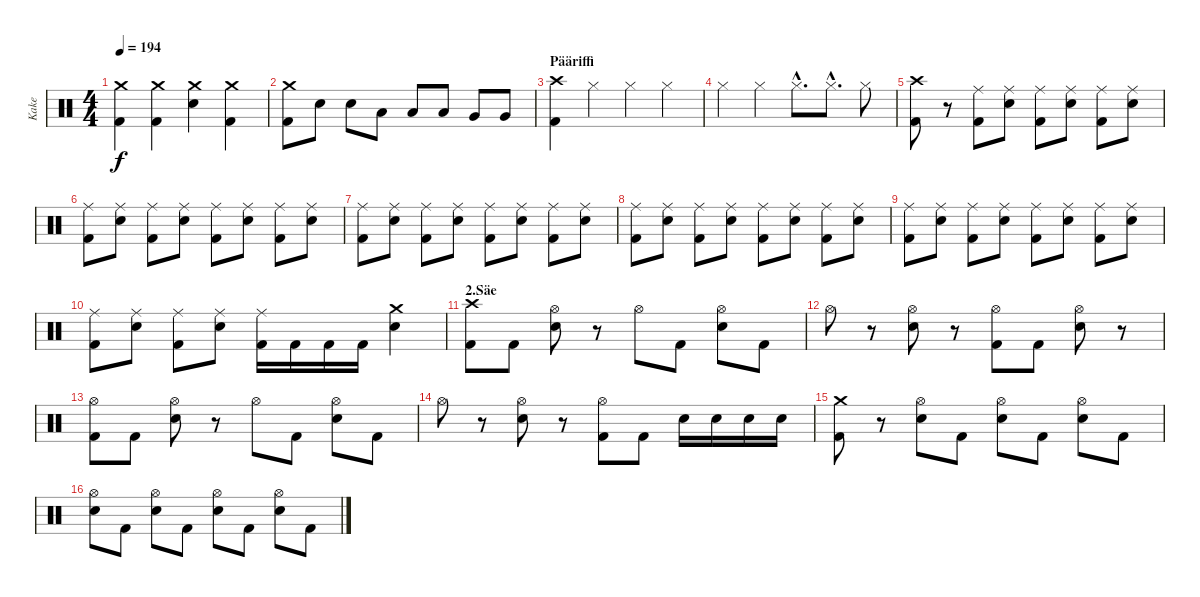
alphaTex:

\track ("Kake" "Kake") {instrument percussion}
\staff {score}
\articulation defaults
\ts (4 4)
\tempo 194
\clef neutral
\ks c
("Crash medium (hit)" "Kick (hit) 2").4{dy f} ("Crash medium (hit)" "Kick (hit) 2").4 ("Crash medium (hit)" "Electric Snare (hit)").4 ("Crash medium (hit)" "Kick (hit) 2").4 |
("Crash medium (hit)" "Kick (hit) 2").8 "Electric Snare (hit)".8 "Electric Snare (hit)".8 "Low Tom (hit)".8 "Low Tom (hit)".8 "Low Tom (hit)".8 "Very Low Tom (hit)".8 "Very Low Tom (hit)".8 |
\section ("" "Pääriffi")
("Crash high (hit)" "Kick (hit) 2").4 "Hi-Hat (closed)".4 "Hi-Hat (closed)".4 "Hi-Hat (closed)".4 |
"Hi-Hat (closed)".4 "Hi-Hat (closed)".4 "Hi-Hat (closed)"{hac}.8{d} "Hi-Hat (closed)"{hac}.8{d} "Hi-Hat (closed)".8 |
("Crash high (hit)" "Kick (hit) 2").8 r.8 ("Ride (middle)" "Kick (hit) 2").8 ("Ride (middle)" "Electric Snare (hit)").8 ("Ride (middle)" "Kick (hit) 2").8 ("Ride (middle)" "Electric Snare (hit)").8 ("Ride (middle)" "Kick (hit) 2").8 ("Ride (middle)" "Electric Snare (hit)").8 |
("Ride (middle)" "Kick (hit) 2").8 ("Ride (middle)" "Electric Snare (hit)").8 ("Ride (middle)" "Kick (hit) 2").8 ("Ride (middle)" "Electric Snare (hit)").8 ("Ride (middle)" "Kick (hit) 2").8 ("Ride (middle)" "Electric Snare (hit)").8 ("Ride (middle)" "Kick (hit) 2").8 ("Ride (middle)" "Electric Snare (hit)").8 |
("Ride (middle)" "Kick (hit) 2").8 ("Ride (middle)" "Electric Snare (hit)").8 ("Ride (middle)" "Kick (hit) 2").8 ("Ride (middle)" "Electric Snare (hit)").8 ("Ride (middle)" "Kick (hit) 2").8 ("Ride (middle)" "Electric Snare (hit)").8 ("Ride (middle)" "Kick (hit) 2").8 ("Ride (middle)" "Electric Snare (hit)").8 |
("Ride (middle)" "Kick (hit) 2").8 ("Ride (middle)" "Electric Snare (hit)").8 ("Ride (middle)" "Kick (hit) 2").8 ("Ride (middle)" "Electric Snare (hit)").8 ("Ride (middle)" "Kick (hit) 2").8 ("Ride (middle)" "Electric Snare (hit)").8 ("Ride (middle)" "Kick (hit) 2").8 ("Ride (middle)" "Electric Snare (hit)").8 |
("Ride (middle)" "Kick (hit) 2").8 ("Ride (middle)" "Electric Snare (hit)").8 ("Ride (middle)" "Kick (hit) 2").8 ("Ride (middle)" "Electric Snare (hit)").8 ("Ride (middle)" "Kick (hit) 2").8 ("Ride (middle)" "Electric Snare (hit)").8 ("Ride (middle)" "Kick (hit) 2").8 ("Ride (middle)" "Electric Snare (hit)").8 |
("Ride (middle)" "Kick (hit) 2").8 ("Ride (middle)" "Electric Snare (hit)").8 ("Ride (middle)" "Kick (hit) 2").8 ("Ride (middle)" "Electric Snare (hit)").8 ("Ride (middle)" "Kick (hit) 2").16 "Kick (hit) 2".16 "Kick (hit) 2".16 "Kick (hit) 2".16 ("Crash medium (hit)" "Electric Snare (hit)").4 |
\section ("" "2.Säe")
("Crash high (hit)" "Kick (hit) 2").8 "Kick (hit) 2".8 ("Hi-Hat (open)" "Electric Snare (hit)").8 r.8 "Hi-Hat (open)".8 "Kick (hit) 2".8 ("Hi-Hat (open)" "Electric Snare (hit)").8 "Kick (hit) 2".8 |
"Hi-Hat (open)".8 r.8 ("Hi-Hat (open)" "Electric Snare (hit)").8 r.8 ("Hi-Hat (open)" "Kick (hit) 2").8 "Kick (hit) 2".8 ("Hi-Hat (open)" "Electric Snare (hit)").8 r.8 |
("Hi-Hat (open)" "Kick (hit) 2").8 "Kick (hit) 2".8 ("Hi-Hat (open)" "Electric Snare (hit)").8 r.8 "Hi-Hat (open)".8 "Kick (hit) 2".8 ("Hi-Hat (open)" "Electric Snare (hit)").8 "Kick (hit) 2".8 |
"Hi-Hat (open)".8 r.8 ("Hi-Hat (open)" "Electric Snare (hit)").8 r.8 ("Hi-Hat (open)" "Kick (hit) 2").8 "Kick (hit) 2".8 "Electric Snare (hit)".16 "Electric Snare (hit)".16 "Electric Snare (hit)".16 "Electric Snare (hit)".16 |
("Crash medium (hit)" "Kick (hit) 2").8 r.8 ("Hi-Hat (open)" "Electric Snare (hit)").8 "Kick (hit) 2".8 ("Hi-Hat (open)" "Electric Snare (hit)").8 "Kick (hit) 2".8 ("Hi-Hat (open)" "Electric Snare (hit)").8 "Kick (hit) 2".8 |
("Hi-Hat (open)" "Electric Snare (hit)").8 "Kick (hit) 2".8 ("Hi-Hat (open)" "Electric Snare (hit)").8 "Kick (hit) 2".8 ("Hi-Hat (open)" "Electric Snare (hit)").8 "Kick (hit) 2".8 ("Hi-Hat (open)" "Electric Snare (hit)").8 "Kick (hit) 2".8
